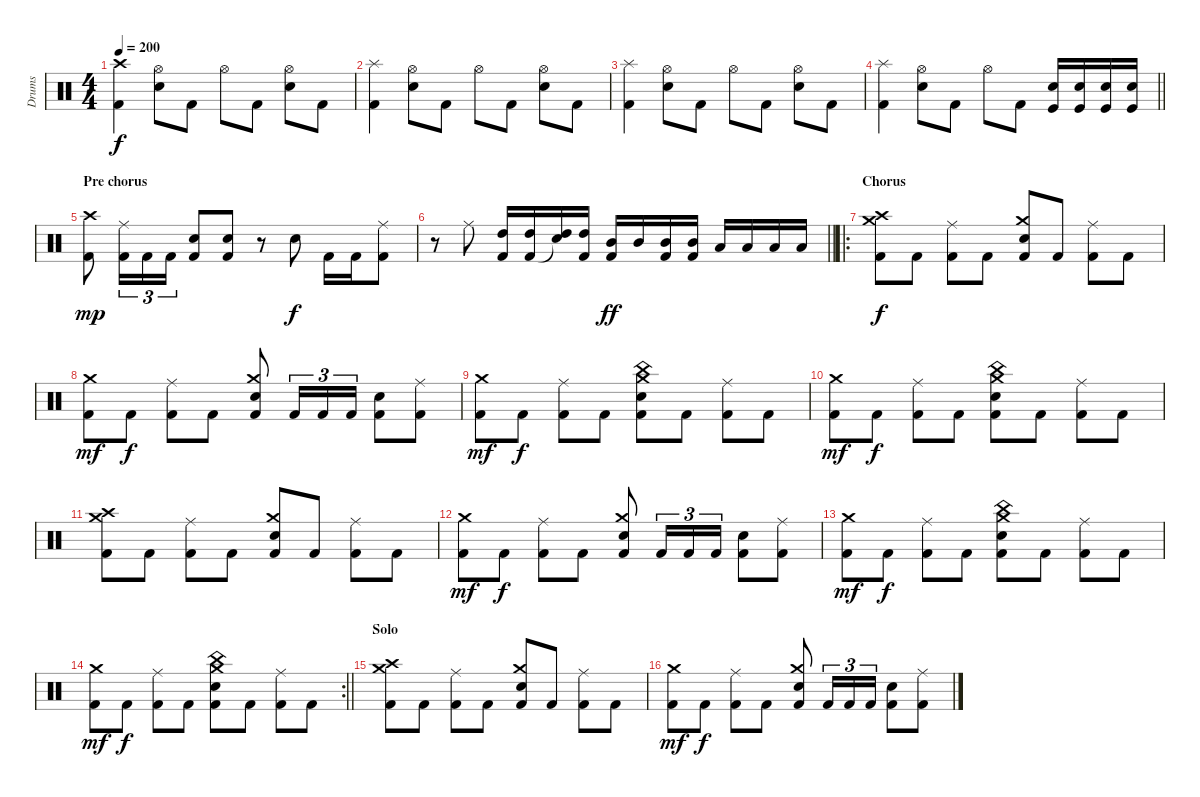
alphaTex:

\track ("Drums" "Drums") {instrument percussion}
\staff {score}
\articulation defaults
\ts (4 4)
\tempo 200
\clef neutral
\ks c
("Crash high (hit)" "Kick (hit) 2").4{dy f} ("Hi-Hat (open)" "Snare (hit) 2").8 "Kick (hit) 2".8 "Hi-Hat (open)".8 "Kick (hit) 2".8 ("Hi-Hat (open)" "Snare (hit) 2").8 "Kick (hit) 2".8 |
("Splash (hit)" "Kick (hit) 2").4 ("Hi-Hat (open)" "Snare (hit) 2").8 "Kick (hit) 2".8 "Hi-Hat (open)".8 "Kick (hit) 2".8 ("Hi-Hat (open)" "Snare (hit) 2").8 "Kick (hit) 2".8 |
("Splash (hit)" "Kick (hit) 2").4 ("Hi-Hat (open)" "Snare (hit) 2").8 "Kick (hit) 2".8 "Hi-Hat (open)".8 "Kick (hit) 2".8 ("Hi-Hat (open)" "Snare (hit) 2").8 "Kick (hit) 2".8 |
\barLineRight lightlight
("Splash (hit)" "Kick (hit) 2").4 ("Hi-Hat (open)" "Snare (hit) 2").8 "Kick (hit) 2".8 "Hi-Hat (open)".8 "Kick (hit) 2".8 ("Snare (hit) 2" "Kick (hit)").16 ("Snare (hit) 2" "Kick (hit)").16 ("Snare (hit) 2" "Kick (hit)").16 ("Snare (hit) 2" "Kick (hit)").16 |
\section ("" "Pre chorus")
("Crash high (hit)" "Kick (hit) 2").8{dy mp} ("Ride (middle)" "Kick (hit) 2").16{tu (3 2)} "Kick (hit) 2".16{tu (3 2)} "Kick (hit) 2".16{tu (3 2)} ("Snare (hit) 2" "Kick (hit) 2").8 ("Snare (hit) 2" "Kick (hit) 2").8 r.8 "Snare (hit) 2".8{dy f} "Kick (hit) 2".16 "Kick (hit) 2".16 ("Ride (middle)" "Kick (hit) 2").8 |
\barLineRight lightlight
r.8 "Ride (middle)".8 ("High Tom (hit)" "Kick (hit) 2").16 ("High Tom (hit)" "Kick (hit) 2").16 ("High Tom (hit)" "Snare (hit)"{t}).16 ("High Tom (hit)" "Kick (hit) 2").16 ("Mid Tom (hit)" "Kick (hit) 2").16{dy ff} "Mid Tom (hit)".16 ("Mid Tom (hit)" "Kick (hit) 2").16 ("Mid Tom (hit)" "Kick (hit) 2").16 "Low Tom (hit)".16 "Low Tom (hit)".16 "Low Tom (hit)".16 "Low Tom (hit)".16 |
\ro
\section ("" "Chorus")
("Crash high (hit)" "Crash medium (hit)" "Kick (hit) 2").8{dy f} "Kick (hit) 2".8 ("Ride (middle)" "Kick (hit) 2").8 "Kick (hit) 2".8 ("Crash medium (hit)" "Electric Snare (hit)" "Kick (hit) 2").8 "Kick (hit) 2".8 ("Ride (middle)" "Kick (hit) 2").8 "Kick (hit) 2".8 |
("Crash medium (hit)" "Kick (hit) 2").8{dy mf} "Kick (hit) 2".8{dy f} ("Ride (middle)" "Kick (hit) 2").8 "Kick (hit) 2".8 ("Crash medium (hit)" "Electric Snare (hit)" "Kick (hit) 2").8 "Kick (hit) 2".16{tu (3 2)} "Kick (hit) 2".16{tu (3 2)} "Kick (hit) 2".16{tu (3 2)} ("Snare (hit) 2" "Kick (hit) 2").8 ("Ride (middle)" "Kick (hit) 2").8 |
("Crash medium (hit)" "Kick (hit) 2").8{dy mf} "Kick (hit) 2".8{dy f} ("Ride (middle)" "Kick (hit) 2").8 "Kick (hit) 2".8 ("China (hit)" "Crash medium (hit)" "Electric Snare (hit)" "Kick (hit) 2").8 "Kick (hit) 2".8 ("Ride (middle)" "Kick (hit) 2").8 "Kick (hit) 2".8 |
("Crash medium (hit)" "Kick (hit) 2").8{dy mf} "Kick (hit) 2".8{dy f} ("Ride (middle)" "Kick (hit) 2").8 "Kick (hit) 2".8 ("China (hit)" "Crash medium (hit)" "Electric Snare (hit)" "Kick (hit) 2").8 "Kick (hit) 2".8 ("Ride (middle)" "Kick (hit) 2").8 "Kick (hit) 2".8 |
("Crash high (hit)" "Crash medium (hit)" "Kick (hit) 2").8 "Kick (hit) 2".8 ("Ride (middle)" "Kick (hit) 2").8 "Kick (hit) 2".8 ("Crash medium (hit)" "Electric Snare (hit)" "Kick (hit) 2").8 "Kick (hit) 2".8 ("Ride (middle)" "Kick (hit) 2").8 "Kick (hit) 2".8 |
("Crash medium (hit)" "Kick (hit) 2").8{dy mf} "Kick (hit) 2".8{dy f} ("Ride (middle)" "Kick (hit) 2").8 "Kick (hit) 2".8 ("Crash medium (hit)" "Electric Snare (hit)" "Kick (hit) 2").8 "Kick (hit) 2".16{tu (3 2)} "Kick (hit) 2".16{tu (3 2)} "Kick (hit) 2".16{tu (3 2)} ("Snare (hit) 2" "Kick (hit) 2").8 ("Ride (middle)" "Kick (hit) 2").8 |
("Crash medium (hit)" "Kick (hit) 2").8{dy mf} "Kick (hit) 2".8{dy f} ("Ride (middle)" "Kick (hit) 2").8 "Kick (hit) 2".8 ("China (hit)" "Crash medium (hit)" "Electric Snare (hit)" "Kick (hit) 2").8 "Kick (hit) 2".8 ("Ride (middle)" "Kick (hit) 2").8 "Kick (hit) 2".8 |
\rc 2
\barLineRight lightlight
("Crash medium (hit)" "Kick (hit) 2").8{dy mf} "Kick (hit) 2".8{dy f} ("Ride (middle)" "Kick (hit) 2").8 "Kick (hit) 2".8 ("China (hit)" "Crash medium (hit)" "Electric Snare (hit)" "Kick (hit) 2").8 "Kick (hit) 2".8 ("Ride (middle)" "Kick (hit) 2").8 "Kick (hit) 2".8 |
\section ("" "Solo")
("Crash high (hit)" "Crash medium (hit)" "Kick (hit) 2").8 "Kick (hit) 2".8 ("Ride (middle)" "Kick (hit) 2").8 "Kick (hit) 2".8 ("Crash medium (hit)" "Electric Snare (hit)" "Kick (hit) 2").8 "Kick (hit) 2".8 ("Ride (middle)" "Kick (hit) 2").8 "Kick (hit) 2".8 |
("Crash medium (hit)" "Kick (hit) 2").8{dy mf} "Kick (hit) 2".8{dy f} ("Ride (middle)" "Kick (hit) 2").8 "Kick (hit) 2".8 ("Crash medium (hit)" "Electric Snare (hit)" "Kick (hit) 2").8 "Kick (hit) 2".16{tu (3 2)} "Kick (hit) 2".16{tu (3 2)} "Kick (hit) 2".16{tu (3 2)} ("Snare (hit) 2" "Kick (hit) 2").8 ("Ride (middle)" "Kick (hit) 2").8
